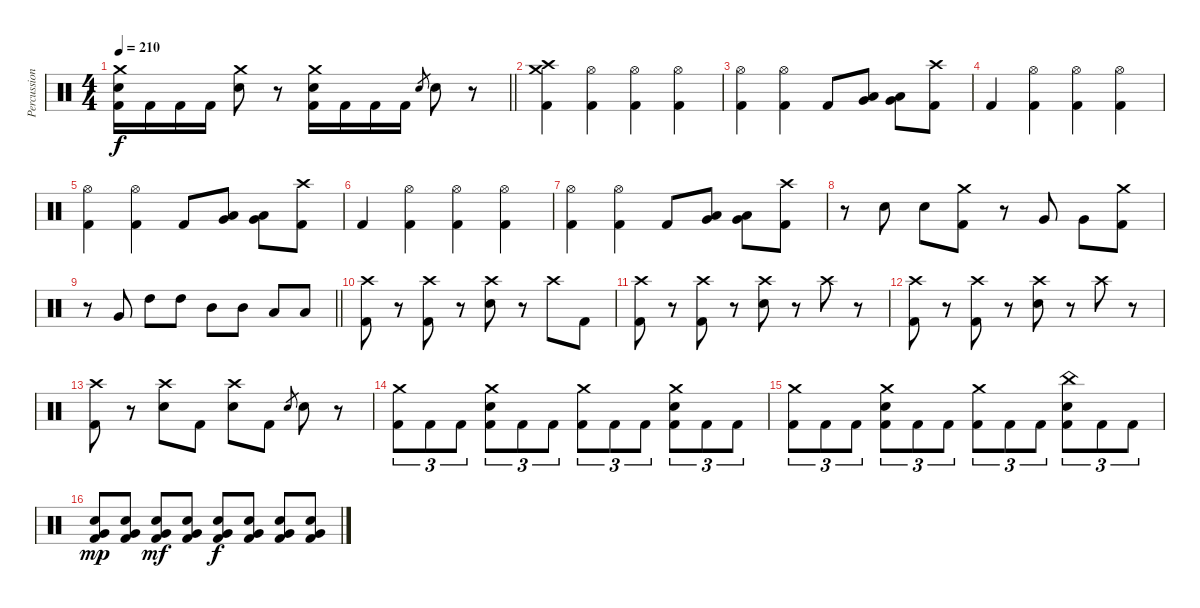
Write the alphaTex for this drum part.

\track ("Percussion" "Percussion") {instrument percussion}
\staff {score}
\articulation defaults
\ts (4 4)
\tempo 210
\clef neutral
\barLineRight lightlight
\ks c
("Crash medium (hit)" "Snare (hit) 2" "Kick (hit) 2").16{dy f} "Kick (hit) 2".16 "Kick (hit) 2".16 "Kick (hit) 2".16 ("Crash medium (hit)" "Snare (hit) 2").8 r.8 ("Crash medium (hit)" "Snare (hit) 2" "Kick (hit) 2").16 "Kick (hit) 2".16 "Kick (hit) 2".16 "Kick (hit) 2".16 "Snare (hit) 2".8{gr} "Snare (hit) 2".8 r.8 |
\section ("" "")
("Crash high (hit)" "Crash medium (hit)" "Kick (hit) 2").4 ("Hi-Hat (open)" "Kick (hit) 2").4 ("Hi-Hat (open)" "Kick (hit) 2").4 ("Hi-Hat (open)" "Kick (hit) 2").4 |
("Hi-Hat (open)" "Kick (hit) 2").4 ("Hi-Hat (open)" "Kick (hit) 2").4 "Kick (hit) 2".8 ("Low Tom (hit)" "Very Low Tom (hit)").8 ("Low Tom (hit)" "Very Low Tom (hit)").8 ("Crash high (hit)" "Kick (hit) 2").8 |
"Kick (hit) 2".4 ("Hi-Hat (open)" "Kick (hit) 2").4 ("Hi-Hat (open)" "Kick (hit) 2").4 ("Hi-Hat (open)" "Kick (hit) 2").4 |
("Hi-Hat (open)" "Kick (hit) 2").4 ("Hi-Hat (open)" "Kick (hit) 2").4 "Kick (hit) 2".8 ("Low Tom (hit)" "Very Low Tom (hit)").8 ("Low Tom (hit)" "Very Low Tom (hit)").8 ("Crash high (hit)" "Kick (hit) 2").8 |
"Kick (hit) 2".4 ("Hi-Hat (open)" "Kick (hit) 2").4 ("Hi-Hat (open)" "Kick (hit) 2").4 ("Hi-Hat (open)" "Kick (hit) 2").4 |
("Hi-Hat (open)" "Kick (hit) 2").4 ("Hi-Hat (open)" "Kick (hit) 2").4 "Kick (hit) 2".8 ("Low Tom (hit)" "Very Low Tom (hit)").8 ("Low Tom (hit)" "Very Low Tom (hit)").8 ("Crash high (hit)" "Kick (hit) 2").8 |
r.8 "Snare (hit) 2".8 "Snare (hit) 2".8 ("Crash medium (hit)" "Kick (hit) 2").8 r.8 "Very Low Tom (hit)".8 "Very Low Tom (hit)".8 ("Crash medium (hit)" "Kick (hit) 2").8 |
\barLineRight lightlight
r.8 "Very Low Tom (hit)".8 "High Tom (hit)".8 "High Tom (hit)".8 "Mid Tom (hit)".8 "Mid Tom (hit)".8 "Low Tom (hit)".8 "Low Tom (hit)".8 |
\section ("" "")
("Crash high (hit)" "Kick (hit) 2").8 r.8 ("Crash high (hit)" "Kick (hit) 2").8 r.8 ("Crash high (hit)" "Snare (hit) 2").8 r.8 "Crash high (hit)".8 "Kick (hit) 2".8 |
("Crash high (hit)" "Kick (hit) 2").8 r.8 ("Crash high (hit)" "Kick (hit) 2").8 r.8 ("Crash high (hit)" "Snare (hit) 2").8 r.8 "Crash high (hit)".8 r.8 |
("Crash high (hit)" "Kick (hit) 2").8 r.8 ("Crash high (hit)" "Kick (hit) 2").8 r.8 ("Crash high (hit)" "Snare (hit) 2").8 r.8 "Crash high (hit)".8 r.8 |
("Crash high (hit)" "Kick (hit) 2").8 r.8 ("Crash high (hit)" "Snare (hit) 2").8 "Kick (hit) 2".8 ("Crash high (hit)" "Snare (hit) 2").8 "Kick (hit) 2".8 "Snare (hit) 2".8{gr} "Snare (hit) 2".8 r.8 |
("Crash medium (hit)" "Kick (hit) 2").8{tu (3 2)} "Kick (hit) 2".8{tu (3 2)} "Kick (hit) 2".8{tu (3 2)} ("Crash medium (hit)" "Snare (hit) 2" "Kick (hit) 2").8{tu (3 2)} "Kick (hit) 2".8{tu (3 2)} "Kick (hit) 2".8{tu (3 2)} ("Crash medium (hit)" "Kick (hit) 2").8{tu (3 2)} "Kick (hit) 2".8{tu (3 2)} "Kick (hit) 2".8{tu (3 2)} ("Crash medium (hit)" "Snare (hit) 2" "Kick (hit) 2").8{tu (3 2)} "Kick (hit) 2".8{tu (3 2)} "Kick (hit) 2".8{tu (3 2)} |
("Crash medium (hit)" "Kick (hit) 2").8{tu (3 2)} "Kick (hit) 2".8{tu (3 2)} "Kick (hit) 2".8{tu (3 2)} ("Crash medium (hit)" "Snare (hit) 2" "Kick (hit) 2").8{tu (3 2)} "Kick (hit) 2".8{tu (3 2)} "Kick (hit) 2".8{tu (3 2)} ("Crash medium (hit)" "Kick (hit) 2").8{tu (3 2)} "Kick (hit) 2".8{tu (3 2)} "Kick (hit) 2".8{tu (3 2)} ("China (hit)" "Snare (hit) 2" "Kick (hit) 2").8{tu (3 2)} "Kick (hit) 2".8{tu (3 2)} "Kick (hit) 2".8{tu (3 2)} |
("Very Low Tom (hit)" "Snare (hit) 2" "Kick (hit) 2").8{dy mp} ("Very Low Tom (hit)" "Snare (hit) 2" "Kick (hit) 2").8 ("Very Low Tom (hit)" "Snare (hit) 2" "Kick (hit) 2").8{dy mf} ("Very Low Tom (hit)" "Snare (hit) 2" "Kick (hit) 2").8 ("Very Low Tom (hit)" "Snare (hit) 2" "Kick (hit) 2").8{dy f} ("Very Low Tom (hit)" "Snare (hit) 2" "Kick (hit) 2").8 ("Very Low Tom (hit)" "Snare (hit) 2" "Kick (hit) 2").8 ("Very Low Tom (hit)" "Snare (hit) 2" "Kick (hit) 2").8
